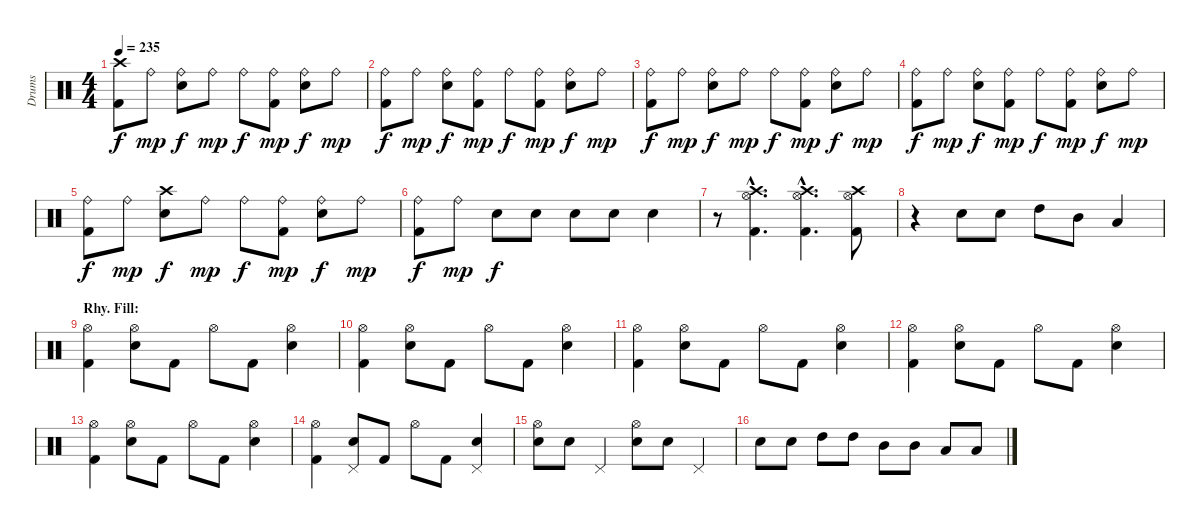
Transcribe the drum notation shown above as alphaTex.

\track ("Drums" "Drums") {instrument percussion}
\staff {score}
\articulation defaults
\ts (4 4)
\tempo 235
\clef neutral
\ks c
("Crash high (hit)" "Kick (hit) 2").8{dy f} "Ride (bell)".8{dy mp} ("Ride (bell)" "Snare (hit) 2").8{dy f} "Ride (bell)".8{dy mp} "Ride (bell)".8{dy f} ("Ride (bell)" "Kick (hit) 2").8{dy mp} ("Ride (bell)" "Snare (hit) 2").8{dy f} "Ride (bell)".8{dy mp} |
("Ride (bell)" "Kick (hit) 2").8{dy f} "Ride (bell)".8{dy mp} ("Ride (bell)" "Snare (hit) 2").8{dy f} ("Ride (bell)" "Kick (hit) 2").8{dy mp} "Ride (bell)".8{dy f} ("Ride (bell)" "Kick (hit) 2").8{dy mp} ("Ride (bell)" "Snare (hit) 2").8{dy f} "Ride (bell)".8{dy mp} |
("Ride (bell)" "Kick (hit) 2").8{dy f} "Ride (bell)".8{dy mp} ("Ride (bell)" "Snare (hit) 2").8{dy f} "Ride (bell)".8{dy mp} "Ride (bell)".8{dy f} ("Ride (bell)" "Kick (hit) 2").8{dy mp} ("Ride (bell)" "Snare (hit) 2").8{dy f} "Ride (bell)".8{dy mp} |
("Ride (bell)" "Kick (hit) 2").8{dy f} "Ride (bell)".8{dy mp} ("Ride (bell)" "Snare (hit) 2").8{dy f} ("Ride (bell)" "Kick (hit) 2").8{dy mp} "Ride (bell)".8{dy f} ("Ride (bell)" "Kick (hit) 2").8{dy mp} ("Ride (bell)" "Snare (hit) 2").8{dy f} "Ride (bell)".8{dy mp} |
("Ride (bell)" "Kick (hit) 2").8{dy f} "Ride (bell)".8{dy mp} ("Crash high (hit)" "Snare (hit) 2").8{dy f} "Ride (bell)".8{dy mp} "Ride (bell)".8{dy f} ("Ride (bell)" "Kick (hit) 2").8{dy mp} ("Ride (bell)" "Snare (hit) 2").8{dy f} "Ride (bell)".8{dy mp} |
("Ride (bell)" "Kick (hit) 2").8{dy f} "Ride (bell)".8{dy mp} "Snare (hit) 2".8{dy f} "Snare (hit) 2".8 "Snare (hit) 2".8 "Snare (hit) 2".8 "Snare (hit) 2".4 |
r.8 ("Hi-Hat (open)"{hac} "Crash high (hit)"{hac} "Kick (hit) 2"{hac}).4{d} ("Hi-Hat (open)"{hac} "Crash high (hit)"{hac} "Kick (hit) 2"{hac}).4{d} ("Hi-Hat (open)" "Crash high (hit)" "Kick (hit) 2").8 |
r.4 "Snare (hit) 2".8 "Snare (hit) 2".8 "High Tom (hit)".8 "Mid Tom (hit)".8 "Low Tom (hit)".4 |
\section ("" "Rhy. Fill:")
("Hi-Hat (open)" "Kick (hit) 2").4 ("Hi-Hat (open)" "Snare (hit) 2").8 "Kick (hit) 2".8 "Hi-Hat (open)".8 "Kick (hit) 2".8 ("Hi-Hat (open)" "Snare (hit) 2").4 |
("Hi-Hat (open)" "Kick (hit) 2").4 ("Hi-Hat (open)" "Snare (hit) 2").8 "Kick (hit) 2".8 "Hi-Hat (open)".8 "Kick (hit) 2".8 ("Hi-Hat (open)" "Snare (hit) 2").4 |
("Hi-Hat (open)" "Kick (hit) 2").4 ("Hi-Hat (open)" "Snare (hit) 2").8 "Kick (hit) 2".8 "Hi-Hat (open)".8 "Kick (hit) 2".8 ("Hi-Hat (open)" "Snare (hit) 2").4 |
("Hi-Hat (open)" "Kick (hit) 2").4 ("Hi-Hat (open)" "Snare (hit) 2").8 "Kick (hit) 2".8 "Hi-Hat (open)".8 "Kick (hit) 2".8 ("Hi-Hat (open)" "Snare (hit) 2").4 |
("Hi-Hat (open)" "Kick (hit) 2").4 ("Hi-Hat (open)" "Snare (hit) 2").8 "Kick (hit) 2".8 "Hi-Hat (open)".8 "Kick (hit) 2".8 ("Hi-Hat (open)" "Snare (hit) 2").4 |
("Hi-Hat (open)" "Kick (hit) 2").4 ("Pedal Hi-Hat (hit)" "Snare (hit) 2").8 "Kick (hit) 2".8 "Hi-Hat (open)".8 "Kick (hit) 2".8 ("Pedal Hi-Hat (hit)" "Snare (hit) 2").4 |
("Hi-Hat (open)" "Snare (hit) 2").8 "Snare (hit) 2".8 "Pedal Hi-Hat (hit)".4 ("Hi-Hat (open)" "Snare (hit) 2").8 "Snare (hit) 2".8 "Pedal Hi-Hat (hit)".4 |
"Snare (hit) 2".8 "Snare (hit) 2".8 "High Tom (hit)".8 "High Tom (hit)".8 "Mid Tom (hit)".8 "Mid Tom (hit)".8 "Low Tom (hit)".8 "Low Tom (hit)".8
